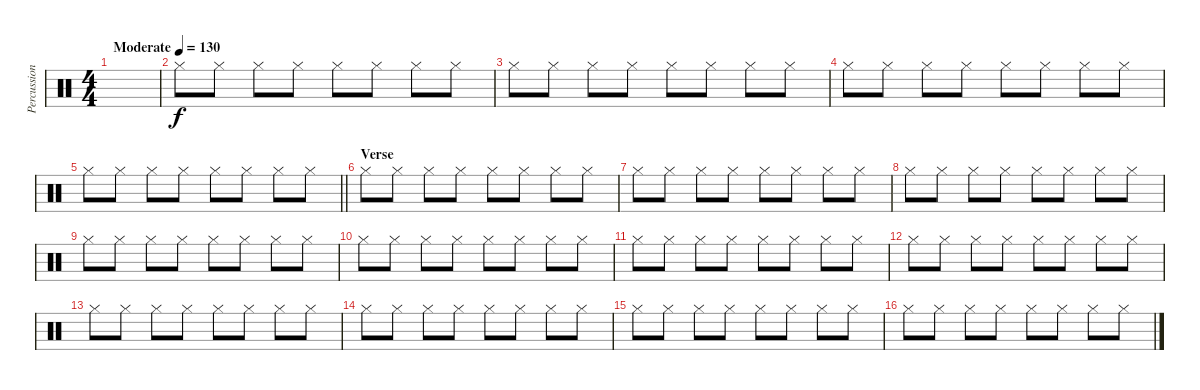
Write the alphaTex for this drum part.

\track ("Percussion" "Percussion") {instrument percussion}
\staff {score}
\articulation defaults
\ts (4 4)
\tempo (130 "Moderate")
\clef neutral
\ks c
|
"Hi-Hat (closed)".8 "Hi-Hat (closed)".8 "Hi-Hat (closed)".8 "Hi-Hat (closed)".8 "Hi-Hat (closed)".8 "Hi-Hat (closed)".8 "Hi-Hat (closed)".8 "Hi-Hat (closed)".8 |
"Hi-Hat (closed)".8 "Hi-Hat (closed)".8 "Hi-Hat (closed)".8 "Hi-Hat (closed)".8 "Hi-Hat (closed)".8 "Hi-Hat (closed)".8 "Hi-Hat (closed)".8 "Hi-Hat (closed)".8 |
"Hi-Hat (closed)".8 "Hi-Hat (closed)".8 "Hi-Hat (closed)".8 "Hi-Hat (closed)".8 "Hi-Hat (closed)".8 "Hi-Hat (closed)".8 "Hi-Hat (closed)".8 "Hi-Hat (closed)".8 |
\barLineRight lightlight "Hi-Hat (closed)".8 "Hi-Hat (closed)".8 "Hi-Hat (closed)".8 "Hi-Hat (closed)".8 "Hi-Hat (closed)".8 "Hi-Hat (closed)".8 "Hi-Hat (closed)".8 "Hi-Hat (closed)".8
|
\section ("" "Verse")
"Hi-Hat (closed)".8 "Hi-Hat (closed)".8 "Hi-Hat (closed)".8 "Hi-Hat (closed)".8 "Hi-Hat (closed)".8 "Hi-Hat (closed)".8 "Hi-Hat (closed)".8 "Hi-Hat (closed)".8 |
"Hi-Hat (closed)".8 "Hi-Hat (closed)".8 "Hi-Hat (closed)".8 "Hi-Hat (closed)".8 "Hi-Hat (closed)".8 "Hi-Hat (closed)".8 "Hi-Hat (closed)".8 "Hi-Hat (closed)".8 |
"Hi-Hat (closed)".8 "Hi-Hat (closed)".8 "Hi-Hat (closed)".8 "Hi-Hat (closed)".8 "Hi-Hat (closed)".8 "Hi-Hat (closed)".8 "Hi-Hat (closed)".8 "Hi-Hat (closed)".8 |
"Hi-Hat (closed)".8 "Hi-Hat (closed)".8 "Hi-Hat (closed)".8 "Hi-Hat (closed)".8 "Hi-Hat (closed)".8 "Hi-Hat (closed)".8 "Hi-Hat (closed)".8 "Hi-Hat (closed)".8 |
"Hi-Hat (closed)".8 "Hi-Hat (closed)".8 "Hi-Hat (closed)".8 "Hi-Hat (closed)".8 "Hi-Hat (closed)".8 "Hi-Hat (closed)".8 "Hi-Hat (closed)".8 "Hi-Hat (closed)".8 |
"Hi-Hat (closed)".8 "Hi-Hat (closed)".8 "Hi-Hat (closed)".8 "Hi-Hat (closed)".8 "Hi-Hat (closed)".8 "Hi-Hat (closed)".8 "Hi-Hat (closed)".8 "Hi-Hat (closed)".8 |
"Hi-Hat (closed)".8 "Hi-Hat (closed)".8 "Hi-Hat (closed)".8 "Hi-Hat (closed)".8 "Hi-Hat (closed)".8 "Hi-Hat (closed)".8 "Hi-Hat (closed)".8 "Hi-Hat (closed)".8 |
"Hi-Hat (closed)".8 "Hi-Hat (closed)".8 "Hi-Hat (closed)".8 "Hi-Hat (closed)".8 "Hi-Hat (closed)".8 "Hi-Hat (closed)".8 "Hi-Hat (closed)".8 "Hi-Hat (closed)".8 |
"Hi-Hat (closed)".8 "Hi-Hat (closed)".8 "Hi-Hat (closed)".8 "Hi-Hat (closed)".8 "Hi-Hat (closed)".8 "Hi-Hat (closed)".8 "Hi-Hat (closed)".8 "Hi-Hat (closed)".8 |
"Hi-Hat (closed)".8 "Hi-Hat (closed)".8 "Hi-Hat (closed)".8 "Hi-Hat (closed)".8 "Hi-Hat (closed)".8 "Hi-Hat (closed)".8 "Hi-Hat (closed)".8 "Hi-Hat (closed)".8 |
"Hi-Hat (closed)".8 "Hi-Hat (closed)".8 "Hi-Hat (closed)".8 "Hi-Hat (closed)".8 "Hi-Hat (closed)".8 "Hi-Hat (closed)".8 "Hi-Hat (closed)".8 "Hi-Hat (closed)".8
